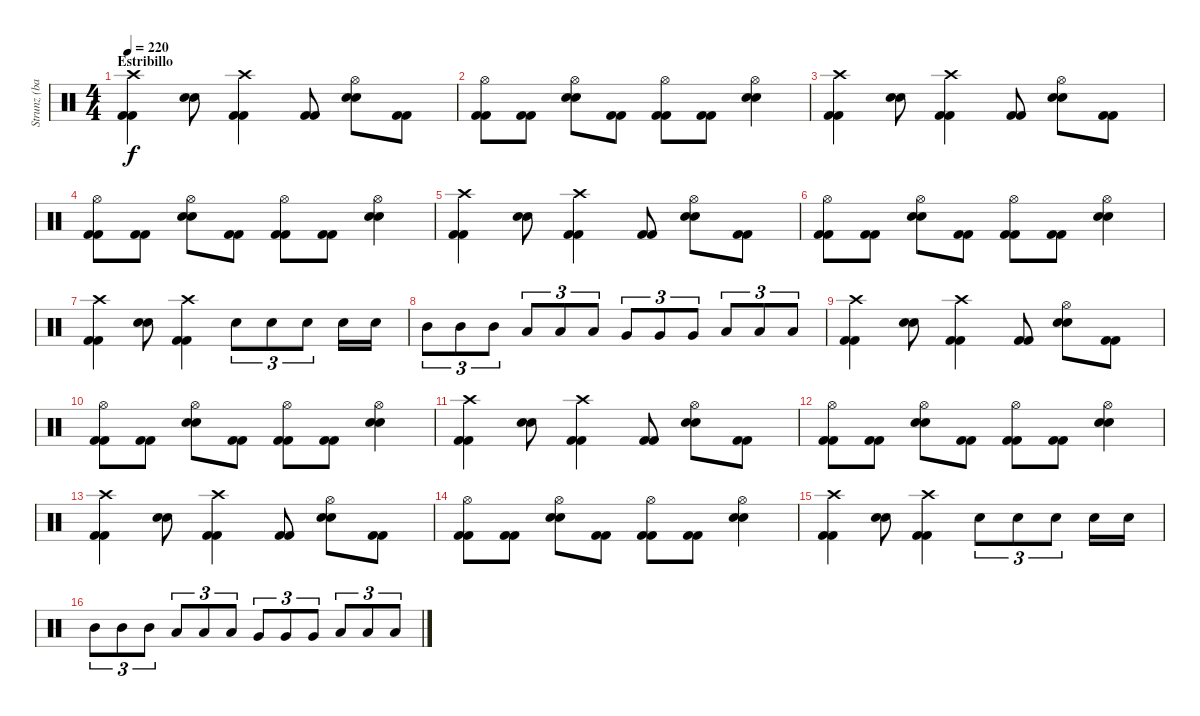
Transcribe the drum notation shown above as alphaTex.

\track ("Strunz (bateria)" "Strunz (ba") {instrument percussion}
\staff {score}
\articulation defaults
\ts (4 4)
\section ("" "Estribillo")
\tempo 220
\clef neutral
\ks c
("Crash high (hit)" "Kick (hit) 2" "Kick (hit) 2").4{dy f} ("Snare (hit) 2" "Snare (hit) 2").8 ("Crash high (hit)" "Kick (hit) 2" "Kick (hit) 2").4 ("Kick (hit) 2" "Kick (hit) 2").8 ("Hi-Hat (open)" "Snare (hit) 2" "Snare (hit) 2").8 ("Kick (hit) 2" "Kick (hit) 2").8 |
("Hi-Hat (open)" "Kick (hit) 2" "Kick (hit) 2").8 ("Kick (hit) 2" "Kick (hit) 2").8 ("Hi-Hat (open)" "Snare (hit) 2" "Snare (hit) 2").8 ("Kick (hit) 2" "Kick (hit) 2").8 ("Hi-Hat (open)" "Kick (hit) 2" "Kick (hit) 2").8 ("Kick (hit) 2" "Kick (hit) 2").8 ("Hi-Hat (open)" "Snare (hit) 2" "Snare (hit) 2").4 |
("Crash high (hit)" "Kick (hit) 2" "Kick (hit) 2").4 ("Snare (hit) 2" "Snare (hit) 2").8 ("Crash high (hit)" "Kick (hit) 2" "Kick (hit) 2").4 ("Kick (hit) 2" "Kick (hit) 2").8 ("Hi-Hat (open)" "Snare (hit) 2" "Snare (hit) 2").8 ("Kick (hit) 2" "Kick (hit) 2").8 |
("Hi-Hat (open)" "Kick (hit) 2" "Kick (hit) 2").8 ("Kick (hit) 2" "Kick (hit) 2").8 ("Hi-Hat (open)" "Snare (hit) 2" "Snare (hit) 2").8 ("Kick (hit) 2" "Kick (hit) 2").8 ("Hi-Hat (open)" "Kick (hit) 2" "Kick (hit) 2").8 ("Kick (hit) 2" "Kick (hit) 2").8 ("Hi-Hat (open)" "Snare (hit) 2" "Snare (hit) 2").4 |
("Crash high (hit)" "Kick (hit) 2" "Kick (hit) 2").4 ("Snare (hit) 2" "Snare (hit) 2").8 ("Crash high (hit)" "Kick (hit) 2" "Kick (hit) 2").4 ("Kick (hit) 2" "Kick (hit) 2").8 ("Hi-Hat (open)" "Snare (hit) 2" "Snare (hit) 2").8 ("Kick (hit) 2" "Kick (hit) 2").8 |
("Hi-Hat (open)" "Kick (hit) 2" "Kick (hit) 2").8 ("Kick (hit) 2" "Kick (hit) 2").8 ("Hi-Hat (open)" "Snare (hit) 2" "Snare (hit) 2").8 ("Kick (hit) 2" "Kick (hit) 2").8 ("Hi-Hat (open)" "Kick (hit) 2" "Kick (hit) 2").8 ("Kick (hit) 2" "Kick (hit) 2").8 ("Hi-Hat (open)" "Snare (hit) 2" "Snare (hit) 2").4 |
("Crash high (hit)" "Kick (hit) 2" "Kick (hit) 2").4 ("Snare (hit) 2" "Snare (hit) 2").8 ("Crash high (hit)" "Kick (hit) 2" "Kick (hit) 2").4 "Snare (hit) 2".8{tu (3 2)} "Snare (hit) 2".8{tu (3 2)} "Snare (hit) 2".8{tu (3 2)} "Snare (hit) 2".16 "Snare (hit) 2".16 |
"Mid Tom (hit)".8{tu (3 2)} "Mid Tom (hit)".8{tu (3 2)} "Mid Tom (hit)".8{tu (3 2)} "Low Tom (hit)".8{tu (3 2)} "Low Tom (hit)".8{tu (3 2)} "Low Tom (hit)".8{tu (3 2)} "Very Low Tom (hit)".8{tu (3 2)} "Very Low Tom (hit)".8{tu (3 2)} "Very Low Tom (hit)".8{tu (3 2)} "Low Floor Tom (hit)".8{tu (3 2)} "Low Floor Tom (hit)".8{tu (3 2)} "Low Floor Tom (hit)".8{tu (3 2)} |
("Crash high (hit)" "Kick (hit) 2" "Kick (hit) 2").4 ("Snare (hit) 2" "Snare (hit) 2").8 ("Crash high (hit)" "Kick (hit) 2" "Kick (hit) 2").4 ("Kick (hit) 2" "Kick (hit) 2").8 ("Hi-Hat (open)" "Snare (hit) 2" "Snare (hit) 2").8 ("Kick (hit) 2" "Kick (hit) 2").8 |
("Hi-Hat (open)" "Kick (hit) 2" "Kick (hit) 2").8 ("Kick (hit) 2" "Kick (hit) 2").8 ("Hi-Hat (open)" "Snare (hit) 2" "Snare (hit) 2").8 ("Kick (hit) 2" "Kick (hit) 2").8 ("Hi-Hat (open)" "Kick (hit) 2" "Kick (hit) 2").8 ("Kick (hit) 2" "Kick (hit) 2").8 ("Hi-Hat (open)" "Snare (hit) 2" "Snare (hit) 2").4 |
("Crash high (hit)" "Kick (hit) 2" "Kick (hit) 2").4 ("Snare (hit) 2" "Snare (hit) 2").8 ("Crash high (hit)" "Kick (hit) 2" "Kick (hit) 2").4 ("Kick (hit) 2" "Kick (hit) 2").8 ("Hi-Hat (open)" "Snare (hit) 2" "Snare (hit) 2").8 ("Kick (hit) 2" "Kick (hit) 2").8 |
("Hi-Hat (open)" "Kick (hit) 2" "Kick (hit) 2").8 ("Kick (hit) 2" "Kick (hit) 2").8 ("Hi-Hat (open)" "Snare (hit) 2" "Snare (hit) 2").8 ("Kick (hit) 2" "Kick (hit) 2").8 ("Hi-Hat (open)" "Kick (hit) 2" "Kick (hit) 2").8 ("Kick (hit) 2" "Kick (hit) 2").8 ("Hi-Hat (open)" "Snare (hit) 2" "Snare (hit) 2").4 |
("Crash high (hit)" "Kick (hit) 2" "Kick (hit) 2").4 ("Snare (hit) 2" "Snare (hit) 2").8 ("Crash high (hit)" "Kick (hit) 2" "Kick (hit) 2").4 ("Kick (hit) 2" "Kick (hit) 2").8 ("Hi-Hat (open)" "Snare (hit) 2" "Snare (hit) 2").8 ("Kick (hit) 2" "Kick (hit) 2").8 |
("Hi-Hat (open)" "Kick (hit) 2" "Kick (hit) 2").8 ("Kick (hit) 2" "Kick (hit) 2").8 ("Hi-Hat (open)" "Snare (hit) 2" "Snare (hit) 2").8 ("Kick (hit) 2" "Kick (hit) 2").8 ("Hi-Hat (open)" "Kick (hit) 2" "Kick (hit) 2").8 ("Kick (hit) 2" "Kick (hit) 2").8 ("Hi-Hat (open)" "Snare (hit) 2" "Snare (hit) 2").4 |
("Crash high (hit)" "Kick (hit) 2" "Kick (hit) 2").4 ("Snare (hit) 2" "Snare (hit) 2").8 ("Crash high (hit)" "Kick (hit) 2" "Kick (hit) 2").4 "Snare (hit) 2".8{tu (3 2)} "Snare (hit) 2".8{tu (3 2)} "Snare (hit) 2".8{tu (3 2)} "Snare (hit) 2".16 "Snare (hit) 2".16 |
"Mid Tom (hit)".8{tu (3 2)} "Mid Tom (hit)".8{tu (3 2)} "Mid Tom (hit)".8{tu (3 2)} "Low Tom (hit)".8{tu (3 2)} "Low Tom (hit)".8{tu (3 2)} "Low Tom (hit)".8{tu (3 2)} "Very Low Tom (hit)".8{tu (3 2)} "Very Low Tom (hit)".8{tu (3 2)} "Very Low Tom (hit)".8{tu (3 2)} "Low Floor Tom (hit)".8{tu (3 2)} "Low Floor Tom (hit)".8{tu (3 2)} "Low Floor Tom (hit)".8{tu (3 2)}
